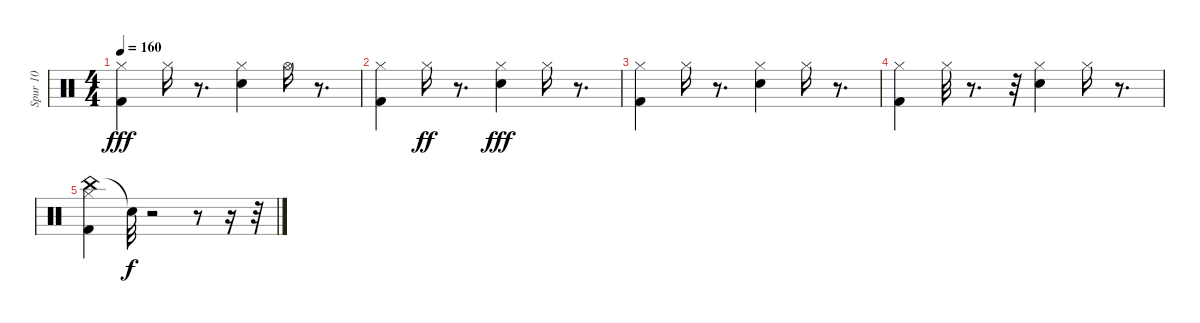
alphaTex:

\track ("Spur 10" "Spur 10") {instrument percussion}
\staff {score}
\articulation defaults
\ts (4 4)
\tempo 160
\clef neutral
\ks c
("Kick (hit) 2" "Hi-Hat (closed)").4{dy fff} "Hi-Hat (closed)".16 r.8{d} ("Snare (hit) 2" "Hi-Hat (closed)").4 "Hi-Hat (open)".16 r.8{d} |
("Kick (hit) 2" "Hi-Hat (closed)").4 "Hi-Hat (closed)".16{dy ff} r.8{d} ("Snare (hit) 2" "Hi-Hat (closed)").4{dy fff} "Hi-Hat (closed)".16 r.8{d} |
("Kick (hit) 2" "Hi-Hat (closed)").4 "Hi-Hat (closed)".16 r.8{d} ("Snare (hit) 2" "Hi-Hat (closed)").4 "Hi-Hat (closed)".16 r.8{d} |
("Kick (hit) 2" "Hi-Hat (closed)").4 "Hi-Hat (closed)".32 r.8{d} r.32 ("Snare (hit) 2" "Hi-Hat (closed)").4 "Hi-Hat (closed)".16 r.8{d} |
("China (hit)" "Kick (hit) 2" "Hi-Hat (closed)").4 "Snare (hit)"{t}.32{dy f} r.2 r.8 r.16 r.32
